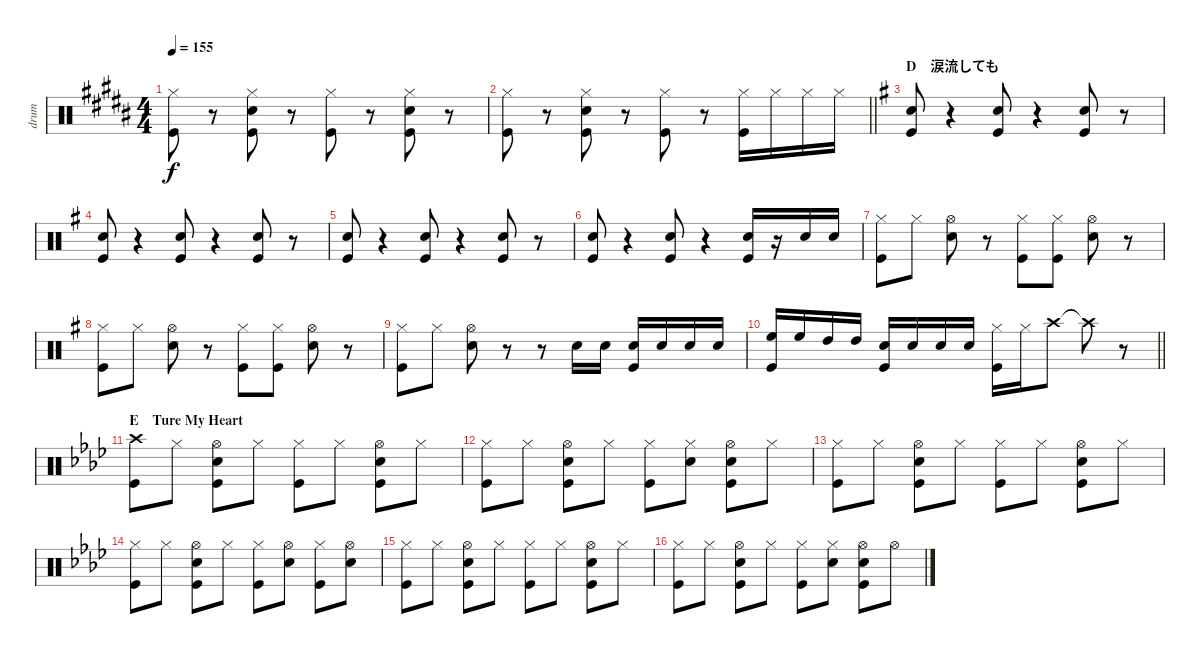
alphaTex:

\track ("drum" "drum") {instrument percussion}
\staff {score}
\articulation defaults
\ts (4 4)
\tempo 155
\clef neutral
\ks b
("Hi-Hat (closed)" "Kick (hit)").8{dy f} r.8 ("Hi-Hat (closed)" "Snare (hit) 2" "Kick (hit)").8 r.8 ("Hi-Hat (closed)" "Kick (hit)").8 r.8 ("Hi-Hat (closed)" "Snare (hit) 2" "Kick (hit)").8 r.8 |
\barLineRight lightlight
("Hi-Hat (closed)" "Kick (hit)").8 r.8 ("Hi-Hat (closed)" "Snare (hit) 2" "Kick (hit)").8 r.8 ("Hi-Hat (closed)" "Kick (hit)").8 r.8 ("Hi-Hat (closed)" "Kick (hit)").16 "Hi-Hat (closed)".16 "Hi-Hat (closed)".16 "Hi-Hat (closed)".16 |
\section ("" "D　涙流しても")
\ks g
("Snare (hit) 2" "Kick (hit)").8 r.4 ("Snare (hit) 2" "Kick (hit)").8 r.4 ("Snare (hit) 2" "Kick (hit)").8 r.8 |
("Snare (hit) 2" "Kick (hit)").8 r.4 ("Snare (hit) 2" "Kick (hit)").8 r.4 ("Snare (hit) 2" "Kick (hit)").8 r.8 |
("Snare (hit) 2" "Kick (hit)").8 r.4 ("Snare (hit) 2" "Kick (hit)").8 r.4 ("Snare (hit) 2" "Kick (hit)").8 r.8 |
("Snare (hit) 2" "Kick (hit)").8 r.4 ("Snare (hit) 2" "Kick (hit)").8 r.4 ("Snare (hit) 2" "Kick (hit)").16 r.16 "Snare (hit) 2".16 "Snare (hit) 2".16 |
("Hi-Hat (closed)" "Kick (hit)").8 "Hi-Hat (closed)".8 ("Hi-Hat (open)" "Snare (hit) 2").8 r.8 ("Hi-Hat (closed)" "Kick (hit)").8 ("Hi-Hat (closed)" "Kick (hit)").8 ("Hi-Hat (open)" "Snare (hit) 2").8 r.8 |
("Hi-Hat (closed)" "Kick (hit)").8 "Hi-Hat (closed)".8 ("Hi-Hat (open)" "Snare (hit) 2").8 r.8 ("Hi-Hat (closed)" "Kick (hit)").8 ("Hi-Hat (closed)" "Kick (hit)").8 ("Hi-Hat (open)" "Snare (hit) 2").8 r.8 |
("Hi-Hat (closed)" "Kick (hit)").8 "Hi-Hat (closed)".8 ("Hi-Hat (open)" "Snare (hit) 2").8 r.8 r.8 "Snare (hit) 2".16 "Snare (hit) 2".16 ("Snare (hit) 2" "Kick (hit)").16 "Snare (hit) 2".16 "Snare (hit) 2".16 "Snare (hit) 2".16 |
\barLineRight lightlight
("High Floor Tom (hit)" "Kick (hit)").16 "High Floor Tom (hit)".16 "High Tom (hit)".16 "High Tom (hit)".16 ("Snare (hit) 2" "Kick (hit)").16 "Snare (hit) 2".16 "Snare (hit) 2".16 "Snare (hit) 2".16 ("Hi-Hat (closed)" "Kick (hit)").16 "Hi-Hat (closed)".16 "Crash high (hit)".8 "Crash high (hit)"{t}.8 r.8 |
\section ("" "E　Ture My Heart")
\ks ab
("Crash high (hit)" "Kick (hit)").8 "Hi-Hat (closed)".8 ("Hi-Hat (open)" "Snare (hit) 2" "Kick (hit)").8 "Hi-Hat (closed)".8 ("Hi-Hat (closed)" "Kick (hit)").8 "Hi-Hat (closed)".8 ("Hi-Hat (open)" "Snare (hit) 2" "Kick (hit)").8 "Hi-Hat (closed)".8 |
("Hi-Hat (closed)" "Kick (hit)").8 "Hi-Hat (closed)".8 ("Hi-Hat (open)" "Snare (hit) 2" "Kick (hit)").8 "Hi-Hat (closed)".8 ("Hi-Hat (closed)" "Kick (hit)").8 ("Hi-Hat (closed)" "Snare (hit) 2").8 ("Hi-Hat (open)" "Snare (hit) 2" "Kick (hit)").8 "Hi-Hat (closed)".8 |
("Hi-Hat (closed)" "Kick (hit)").8 "Hi-Hat (closed)".8 ("Hi-Hat (open)" "Snare (hit) 2" "Kick (hit)").8 "Hi-Hat (closed)".8 ("Hi-Hat (closed)" "Kick (hit)").8 "Hi-Hat (closed)".8 ("Hi-Hat (open)" "Snare (hit) 2" "Kick (hit)").8 "Hi-Hat (closed)".8 |
("Hi-Hat (closed)" "Kick (hit)").8 "Hi-Hat (closed)".8 ("Hi-Hat (open)" "Snare (hit) 2" "Kick (hit)").8 "Hi-Hat (closed)".8 ("Hi-Hat (closed)" "Kick (hit)").8 ("Hi-Hat (open)" "Snare (hit) 2").8 ("Hi-Hat (closed)" "Kick (hit)").8 ("Hi-Hat (open)" "Snare (hit) 2").8 |
("Hi-Hat (closed)" "Kick (hit)").8 "Hi-Hat (closed)".8 ("Hi-Hat (open)" "Snare (hit) 2" "Kick (hit)").8 "Hi-Hat (closed)".8 ("Hi-Hat (closed)" "Kick (hit)").8 "Hi-Hat (closed)".8 ("Hi-Hat (open)" "Snare (hit) 2" "Kick (hit)").8 "Hi-Hat (closed)".8 |
("Hi-Hat (closed)" "Kick (hit)").8 "Hi-Hat (closed)".8 ("Hi-Hat (open)" "Snare (hit) 2" "Kick (hit)").8 "Hi-Hat (closed)".8 ("Hi-Hat (closed)" "Kick (hit)").8 ("Hi-Hat (closed)" "Snare (hit) 2").8 ("Hi-Hat (open)" "Snare (hit) 2" "Kick (hit)").8 "Hi-Hat (open)".8
